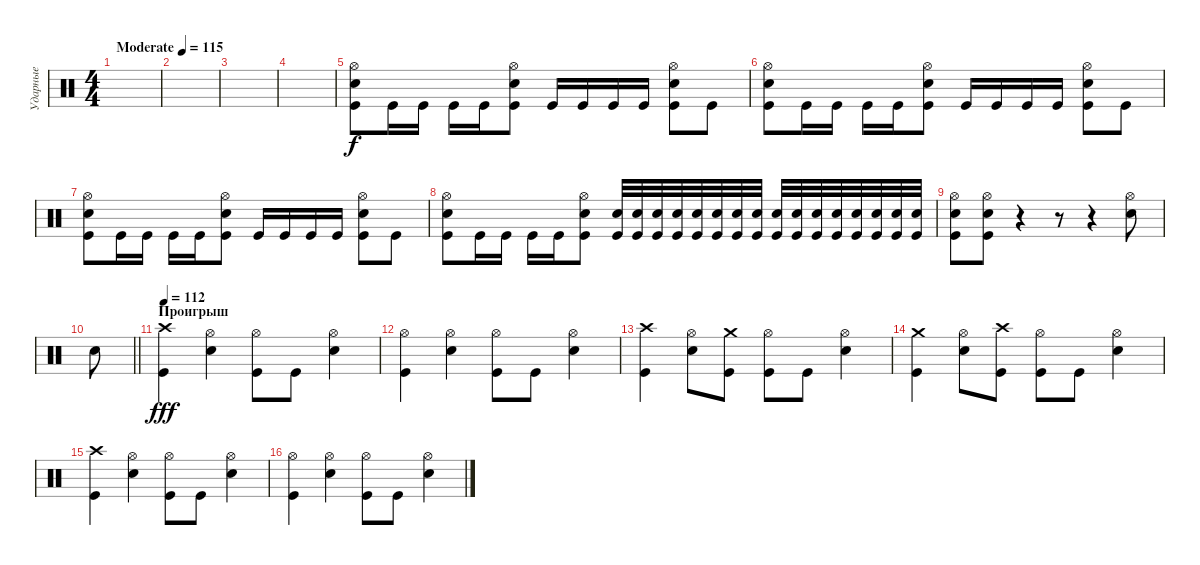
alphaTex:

\track ("Ударные" "Ударные") {instrument percussion}
\staff {score}
\articulation defaults
\ts (4 4)
\tempo (115 "Moderate")
\clef neutral
\ks c
|
|
|
|
("Snare (hit) 2" "Kick (hit)" "Hi-Hat (open)").8 "Kick (hit)".16 "Kick (hit)".16 "Kick (hit)".16 "Kick (hit)".16 ("Snare (hit) 2" "Kick (hit)" "Hi-Hat (open)").8 "Kick (hit)".16 "Kick (hit)".16 "Kick (hit)".16 "Kick (hit)".16 ("Snare (hit) 2" "Kick (hit)" "Hi-Hat (open)").8 "Kick (hit)".8 |
("Snare (hit) 2" "Kick (hit)" "Hi-Hat (open)").8 "Kick (hit)".16 "Kick (hit)".16 "Kick (hit)".16 "Kick (hit)".16 ("Snare (hit) 2" "Kick (hit)" "Hi-Hat (open)").8 "Kick (hit)".16 "Kick (hit)".16 "Kick (hit)".16 "Kick (hit)".16 ("Snare (hit) 2" "Kick (hit)" "Hi-Hat (open)").8 "Kick (hit)".8 |
("Snare (hit) 2" "Kick (hit)" "Hi-Hat (open)").8 "Kick (hit)".16 "Kick (hit)".16 "Kick (hit)".16 "Kick (hit)".16 ("Snare (hit) 2" "Kick (hit)" "Hi-Hat (open)").8 "Kick (hit)".16 "Kick (hit)".16 "Kick (hit)".16 "Kick (hit)".16 ("Snare (hit) 2" "Kick (hit)" "Hi-Hat (open)").8 "Kick (hit)".8 |
("Snare (hit) 2" "Kick (hit)" "Hi-Hat (open)").8 "Kick (hit)".16 "Kick (hit)".16 "Kick (hit)".16 "Kick (hit)".16 ("Snare (hit) 2" "Kick (hit)" "Hi-Hat (open)").8 ("Snare (hit) 2" "Kick (hit)").32 ("Kick (hit)" "Snare (hit) 2").32 ("Snare (hit) 2" "Kick (hit)").32 ("Kick (hit)" "Snare (hit) 2").32 ("Snare (hit) 2" "Kick (hit)").32 ("Kick (hit)" "Snare (hit) 2").32 ("Snare (hit) 2" "Kick (hit)").32 ("Kick (hit)" "Snare (hit) 2").32 ("Snare (hit) 2" "Kick (hit)").32 ("Kick (hit)" "Snare (hit) 2").32 ("Snare (hit) 2" "Kick (hit)").32 ("Kick (hit)" "Snare (hit) 2").32 ("Snare (hit) 2" "Kick (hit)").32 ("Kick (hit)" "Snare (hit) 2").32 ("Snare (hit) 2" "Kick (hit)").32 ("Kick (hit)" "Snare (hit) 2").32 |
("Snare (hit) 2" "Kick (hit)" "Hi-Hat (open)").8 ("Snare (hit) 2" "Kick (hit)" "Hi-Hat (open)").8 r.4 r.8 r.4 ("Snare (hit) 2" "Hi-Hat (open)").8 |
\barLineRight lightlight "Snare (hit) 2".8
|
\section ("" "Проигрыш")
\tempo 112
("Crash high (hit)" "Kick (hit)").4{dy fff} ("Hi-Hat (open)" "Electric Snare (hit)").4 ("Hi-Hat (open)" "Kick (hit)").8 "Kick (hit)".8 ("Hi-Hat (open)" "Electric Snare (hit)").4 |
("Hi-Hat (open)" "Kick (hit)").4 ("Hi-Hat (open)" "Electric Snare (hit)").4 ("Hi-Hat (open)" "Kick (hit)").8 "Kick (hit)".8 ("Hi-Hat (open)" "Electric Snare (hit)").4 |
("Crash high (hit)" "Kick (hit)").4 ("Hi-Hat (open)" "Electric Snare (hit)").8 ("Crash medium (hit)" "Kick (hit)").8 ("Hi-Hat (open)" "Kick (hit)").8 "Kick (hit)".8 ("Hi-Hat (open)" "Electric Snare (hit)").4 |
("Crash medium (hit)" "Kick (hit)").4 ("Hi-Hat (open)" "Electric Snare (hit)").8 ("Crash high (hit)" "Kick (hit)").8 ("Hi-Hat (open)" "Kick (hit)").8 "Kick (hit)".8 ("Hi-Hat (open)" "Electric Snare (hit)").4 |
("Crash high (hit)" "Kick (hit)").4 ("Hi-Hat (open)" "Electric Snare (hit)").4 ("Hi-Hat (open)" "Kick (hit)").8 "Kick (hit)".8 ("Hi-Hat (open)" "Electric Snare (hit)").4 |
("Hi-Hat (open)" "Kick (hit)").4 ("Hi-Hat (open)" "Electric Snare (hit)").4 ("Hi-Hat (open)" "Kick (hit)").8 "Kick (hit)".8 ("Hi-Hat (open)" "Electric Snare (hit)").4
